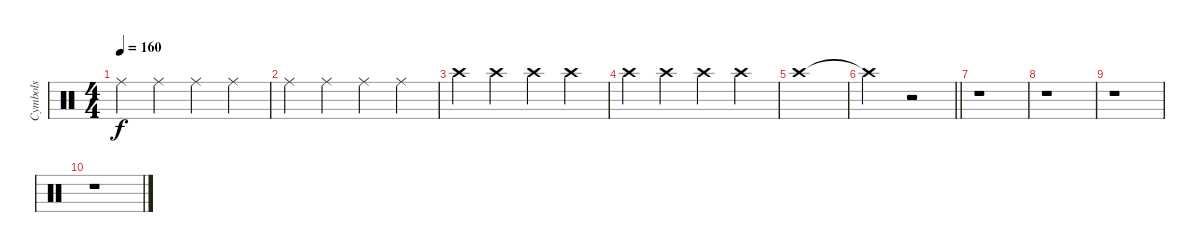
\track ("Cymbols" "Cymbols") {instrument percussion}
\staff {score}
\articulation defaults
\ts (4 4)
\tempo 160
\clef neutral
\ks c "Ride (middle)".4{dy f} "Ride (middle)".4 "Ride (middle)".4 "Ride (middle)".4
|
"Ride (middle)".4 "Ride (middle)".4 "Ride (middle)".4 "Ride (middle)".4 |
"Crash high (hit)".4 "Crash high (hit)".4 "Crash high (hit)".4 "Crash high (hit)".4 |
"Crash high (hit)".4 "Crash high (hit)".4 "Crash high (hit)".4 "Crash high (hit)".4 |
"Crash high (hit)".1 |
\barLineRight lightlight "Crash high (hit)"{t}.2
r.2 |
r.1 |
r.1 |
r.1 |
r.1
